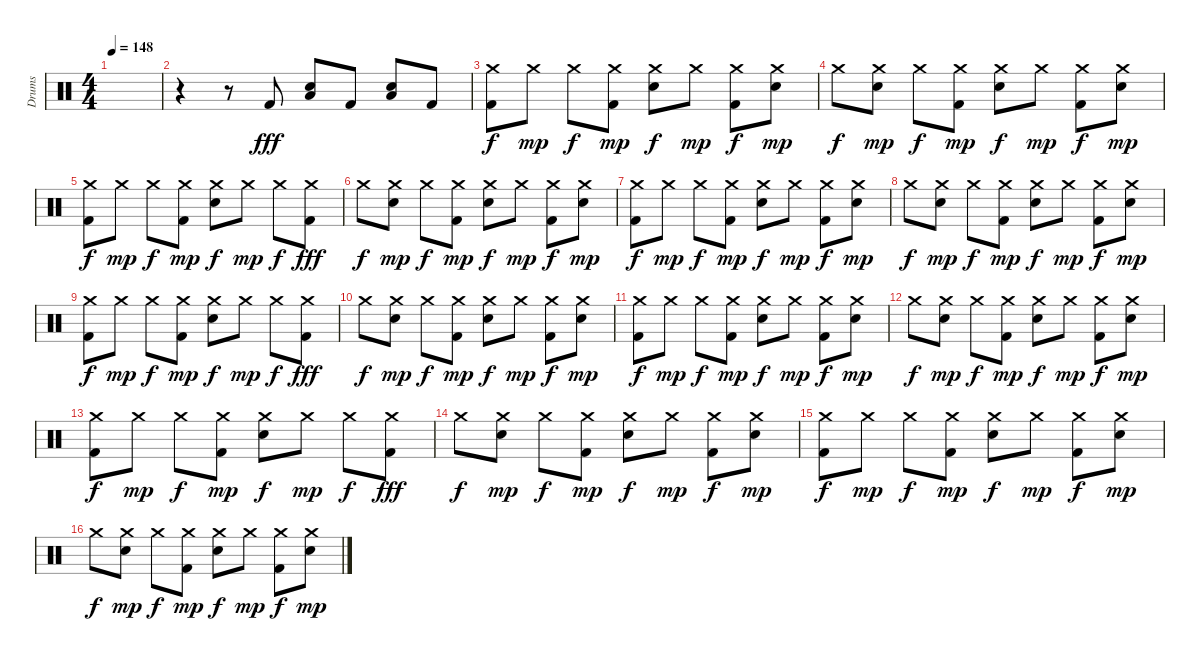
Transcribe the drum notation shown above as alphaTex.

\track ("Drums" "Drums") {instrument percussion}
\staff {score}
\articulation defaults
\ts (4 4)
\tempo 148
\clef neutral
\ks c
|
r.4 r.8 "Kick (hit) 2".8{dy fff} ("Low Tom (hit)" "Snare (hit) 2").8 "Kick (hit) 2".8 ("Low Tom (hit)" "Snare (hit) 2").8 "Kick (hit) 2".8 |
("Crash medium (hit)" "Kick (hit) 2").8{dy f} "Crash medium (hit)".8{dy mp} "Crash medium (hit)".8{dy f} ("Crash medium (hit)" "Kick (hit) 2").8{dy mp} ("Crash medium (hit)" "Snare (hit) 2").8{dy f} "Crash medium (hit)".8{dy mp} ("Crash medium (hit)" "Kick (hit) 2").8{dy f} ("Crash medium (hit)" "Snare (hit) 2").8{dy mp} |
"Crash medium (hit)".8{dy f} ("Crash medium (hit)" "Snare (hit) 2").8{dy mp} "Crash medium (hit)".8{dy f} ("Crash medium (hit)" "Kick (hit) 2").8{dy mp} ("Crash medium (hit)" "Snare (hit) 2").8{dy f} "Crash medium (hit)".8{dy mp} ("Crash medium (hit)" "Kick (hit) 2").8{dy f} ("Crash medium (hit)" "Snare (hit) 2").8{dy mp} |
("Crash medium (hit)" "Kick (hit) 2").8{dy f} "Crash medium (hit)".8{dy mp} "Crash medium (hit)".8{dy f} ("Crash medium (hit)" "Kick (hit) 2").8{dy mp} ("Crash medium (hit)" "Snare (hit) 2").8{dy f} "Crash medium (hit)".8{dy mp} "Crash medium (hit)".8{dy f} ("Crash medium (hit)" "Kick (hit) 2").8{dy fff} |
"Crash medium (hit)".8{dy f} ("Crash medium (hit)" "Snare (hit) 2").8{dy mp} "Crash medium (hit)".8{dy f} ("Crash medium (hit)" "Kick (hit) 2").8{dy mp} ("Crash medium (hit)" "Snare (hit) 2").8{dy f} "Crash medium (hit)".8{dy mp} ("Crash medium (hit)" "Kick (hit) 2").8{dy f} ("Crash medium (hit)" "Snare (hit) 2").8{dy mp} |
("Crash medium (hit)" "Kick (hit) 2").8{dy f} "Crash medium (hit)".8{dy mp} "Crash medium (hit)".8{dy f} ("Crash medium (hit)" "Kick (hit) 2").8{dy mp} ("Crash medium (hit)" "Snare (hit) 2").8{dy f} "Crash medium (hit)".8{dy mp} ("Crash medium (hit)" "Kick (hit) 2").8{dy f} ("Crash medium (hit)" "Snare (hit) 2").8{dy mp} |
"Crash medium (hit)".8{dy f} ("Crash medium (hit)" "Snare (hit) 2").8{dy mp} "Crash medium (hit)".8{dy f} ("Crash medium (hit)" "Kick (hit) 2").8{dy mp} ("Crash medium (hit)" "Snare (hit) 2").8{dy f} "Crash medium (hit)".8{dy mp} ("Crash medium (hit)" "Kick (hit) 2").8{dy f} ("Crash medium (hit)" "Snare (hit) 2").8{dy mp} |
("Crash medium (hit)" "Kick (hit) 2").8{dy f} "Crash medium (hit)".8{dy mp} "Crash medium (hit)".8{dy f} ("Crash medium (hit)" "Kick (hit) 2").8{dy mp} ("Crash medium (hit)" "Snare (hit) 2").8{dy f} "Crash medium (hit)".8{dy mp} "Crash medium (hit)".8{dy f} ("Crash medium (hit)" "Kick (hit) 2").8{dy fff} |
"Crash medium (hit)".8{dy f} ("Crash medium (hit)" "Snare (hit) 2").8{dy mp} "Crash medium (hit)".8{dy f} ("Crash medium (hit)" "Kick (hit) 2").8{dy mp} ("Crash medium (hit)" "Snare (hit) 2").8{dy f} "Crash medium (hit)".8{dy mp} ("Crash medium (hit)" "Kick (hit) 2").8{dy f} ("Crash medium (hit)" "Snare (hit) 2").8{dy mp} |
("Crash medium (hit)" "Kick (hit) 2").8{dy f} "Crash medium (hit)".8{dy mp} "Crash medium (hit)".8{dy f} ("Crash medium (hit)" "Kick (hit) 2").8{dy mp} ("Crash medium (hit)" "Snare (hit) 2").8{dy f} "Crash medium (hit)".8{dy mp} ("Crash medium (hit)" "Kick (hit) 2").8{dy f} ("Crash medium (hit)" "Snare (hit) 2").8{dy mp} |
"Crash medium (hit)".8{dy f} ("Crash medium (hit)" "Snare (hit) 2").8{dy mp} "Crash medium (hit)".8{dy f} ("Crash medium (hit)" "Kick (hit) 2").8{dy mp} ("Crash medium (hit)" "Snare (hit) 2").8{dy f} "Crash medium (hit)".8{dy mp} ("Crash medium (hit)" "Kick (hit) 2").8{dy f} ("Crash medium (hit)" "Snare (hit) 2").8{dy mp} |
("Crash medium (hit)" "Kick (hit) 2").8{dy f} "Crash medium (hit)".8{dy mp} "Crash medium (hit)".8{dy f} ("Crash medium (hit)" "Kick (hit) 2").8{dy mp} ("Crash medium (hit)" "Snare (hit) 2").8{dy f} "Crash medium (hit)".8{dy mp} "Crash medium (hit)".8{dy f} ("Crash medium (hit)" "Kick (hit) 2").8{dy fff} |
"Crash medium (hit)".8{dy f} ("Crash medium (hit)" "Snare (hit) 2").8{dy mp} "Crash medium (hit)".8{dy f} ("Crash medium (hit)" "Kick (hit) 2").8{dy mp} ("Crash medium (hit)" "Snare (hit) 2").8{dy f} "Crash medium (hit)".8{dy mp} ("Crash medium (hit)" "Kick (hit) 2").8{dy f} ("Crash medium (hit)" "Snare (hit) 2").8{dy mp} |
("Crash medium (hit)" "Kick (hit) 2").8{dy f} "Crash medium (hit)".8{dy mp} "Crash medium (hit)".8{dy f} ("Crash medium (hit)" "Kick (hit) 2").8{dy mp} ("Crash medium (hit)" "Snare (hit) 2").8{dy f} "Crash medium (hit)".8{dy mp} ("Crash medium (hit)" "Kick (hit) 2").8{dy f} ("Crash medium (hit)" "Snare (hit) 2").8{dy mp} |
"Crash medium (hit)".8{dy f} ("Crash medium (hit)" "Snare (hit) 2").8{dy mp} "Crash medium (hit)".8{dy f} ("Crash medium (hit)" "Kick (hit) 2").8{dy mp} ("Crash medium (hit)" "Snare (hit) 2").8{dy f} "Crash medium (hit)".8{dy mp} ("Crash medium (hit)" "Kick (hit) 2").8{dy f} ("Crash medium (hit)" "Snare (hit) 2").8{dy mp}
